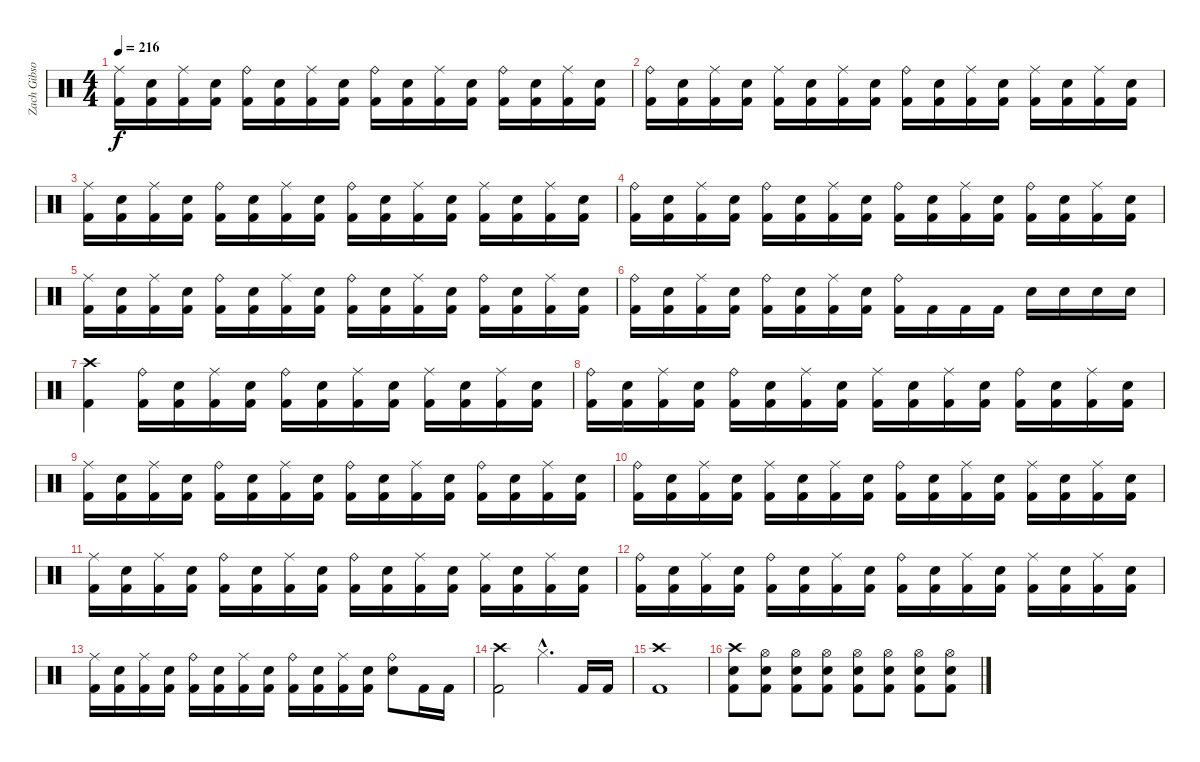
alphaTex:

\track ("Zach Gibson (Ex-Drums)" "Zach Gibso") {instrument percussion}
\staff {score}
\articulation defaults
\ts (4 4)
\tempo 216
\clef neutral
\ks c
("Ride (middle)" "Kick (hit) 2").16{dy f} ("Snare (hit) 2" "Kick (hit) 2").16 ("Ride (middle)" "Kick (hit) 2").16 ("Snare (hit) 2" "Kick (hit) 2").16 ("Ride (bell)" "Kick (hit) 2").16 ("Snare (hit) 2" "Kick (hit) 2").16 ("Ride (middle)" "Kick (hit) 2").16 ("Snare (hit) 2" "Kick (hit) 2").16 ("Ride (bell)" "Kick (hit) 2").16 ("Snare (hit) 2" "Kick (hit) 2").16 ("Ride (middle)" "Kick (hit) 2").16 ("Snare (hit) 2" "Kick (hit) 2").16 ("Ride (bell)" "Kick (hit) 2").16 ("Snare (hit) 2" "Kick (hit) 2").16 ("Ride (middle)" "Kick (hit) 2").16 ("Snare (hit) 2" "Kick (hit) 2").16 |
("Ride (bell)" "Kick (hit) 2").16 ("Snare (hit) 2" "Kick (hit) 2").16 ("Ride (middle)" "Kick (hit) 2").16 ("Snare (hit) 2" "Kick (hit) 2").16 ("Ride (middle)" "Kick (hit) 2").16 ("Snare (hit) 2" "Kick (hit) 2").16 ("Ride (middle)" "Kick (hit) 2").16 ("Snare (hit) 2" "Kick (hit) 2").16 ("Ride (bell)" "Kick (hit) 2").16 ("Snare (hit) 2" "Kick (hit) 2").16 ("Ride (middle)" "Kick (hit) 2").16 ("Snare (hit) 2" "Kick (hit) 2").16 ("Ride (middle)" "Kick (hit) 2").16 ("Snare (hit) 2" "Kick (hit) 2").16 ("Ride (middle)" "Kick (hit) 2").16 ("Snare (hit) 2" "Kick (hit) 2").16 |
("Ride (middle)" "Kick (hit) 2").16 ("Snare (hit) 2" "Kick (hit) 2").16 ("Ride (middle)" "Kick (hit) 2").16 ("Snare (hit) 2" "Kick (hit) 2").16 ("Ride (bell)" "Kick (hit) 2").16 ("Snare (hit) 2" "Kick (hit) 2").16 ("Ride (middle)" "Kick (hit) 2").16 ("Snare (hit) 2" "Kick (hit) 2").16 ("Ride (bell)" "Kick (hit) 2").16 ("Snare (hit) 2" "Kick (hit) 2").16 ("Ride (middle)" "Kick (hit) 2").16 ("Snare (hit) 2" "Kick (hit) 2").16 ("Ride (middle)" "Kick (hit) 2").16 ("Snare (hit) 2" "Kick (hit) 2").16 ("Ride (middle)" "Kick (hit) 2").16 ("Snare (hit) 2" "Kick (hit) 2").16 |
("Ride (bell)" "Kick (hit) 2").16 ("Snare (hit) 2" "Kick (hit) 2").16 ("Ride (middle)" "Kick (hit) 2").16 ("Snare (hit) 2" "Kick (hit) 2").16 ("Ride (bell)" "Kick (hit) 2").16 ("Snare (hit) 2" "Kick (hit) 2").16 ("Ride (middle)" "Kick (hit) 2").16 ("Snare (hit) 2" "Kick (hit) 2").16 ("Ride (bell)" "Kick (hit) 2").16 ("Snare (hit) 2" "Kick (hit) 2").16 ("Ride (middle)" "Kick (hit) 2").16 ("Snare (hit) 2" "Kick (hit) 2").16 ("Ride (bell)" "Kick (hit) 2").16 ("Snare (hit) 2" "Kick (hit) 2").16 ("Ride (middle)" "Kick (hit) 2").16 ("Snare (hit) 2" "Kick (hit) 2").16 |
("Ride (middle)" "Kick (hit) 2").16 ("Snare (hit) 2" "Kick (hit) 2").16 ("Ride (middle)" "Kick (hit) 2").16 ("Snare (hit) 2" "Kick (hit) 2").16 ("Ride (bell)" "Kick (hit) 2").16 ("Snare (hit) 2" "Kick (hit) 2").16 ("Ride (middle)" "Kick (hit) 2").16 ("Snare (hit) 2" "Kick (hit) 2").16 ("Ride (bell)" "Kick (hit) 2").16 ("Snare (hit) 2" "Kick (hit) 2").16 ("Ride (middle)" "Kick (hit) 2").16 ("Snare (hit) 2" "Kick (hit) 2").16 ("Ride (bell)" "Kick (hit) 2").16 ("Snare (hit) 2" "Kick (hit) 2").16 ("Ride (middle)" "Kick (hit) 2").16 ("Snare (hit) 2" "Kick (hit) 2").16 |
("Ride (bell)" "Kick (hit) 2").16 ("Snare (hit) 2" "Kick (hit) 2").16 ("Ride (middle)" "Kick (hit) 2").16 ("Snare (hit) 2" "Kick (hit) 2").16 ("Ride (bell)" "Kick (hit) 2").16 ("Snare (hit) 2" "Kick (hit) 2").16 ("Ride (middle)" "Kick (hit) 2").16 ("Snare (hit) 2" "Kick (hit) 2").16 ("Ride (bell)" "Kick (hit) 2").16 "Kick (hit) 2".16 "Kick (hit) 2".16 "Kick (hit) 2".16 "Snare (hit) 2".16 "Snare (hit) 2".16 "Snare (hit) 2".16 "Snare (hit) 2".16 |
("Crash high (hit)" "Kick (hit) 2").4 ("Ride (bell)" "Kick (hit) 2").16 ("Snare (hit) 2" "Kick (hit) 2").16 ("Ride (middle)" "Kick (hit) 2").16 ("Snare (hit) 2" "Kick (hit) 2").16 ("Ride (bell)" "Kick (hit) 2").16 ("Snare (hit) 2" "Kick (hit) 2").16 ("Ride (middle)" "Kick (hit) 2").16 ("Snare (hit) 2" "Kick (hit) 2").16 ("Ride (middle)" "Kick (hit) 2").16 ("Snare (hit) 2" "Kick (hit) 2").16 ("Ride (middle)" "Kick (hit) 2").16 ("Snare (hit) 2" "Kick (hit) 2").16 |
("Ride (bell)" "Kick (hit) 2").16 ("Snare (hit) 2" "Kick (hit) 2").16 ("Ride (middle)" "Kick (hit) 2").16 ("Snare (hit) 2" "Kick (hit) 2").16 ("Ride (bell)" "Kick (hit) 2").16 ("Snare (hit) 2" "Kick (hit) 2").16 ("Ride (middle)" "Kick (hit) 2").16 ("Snare (hit) 2" "Kick (hit) 2").16 ("Ride (middle)" "Kick (hit) 2").16 ("Snare (hit) 2" "Kick (hit) 2").16 ("Ride (middle)" "Kick (hit) 2").16 ("Snare (hit) 2" "Kick (hit) 2").16 ("Ride (bell)" "Kick (hit) 2").16 ("Snare (hit) 2" "Kick (hit) 2").16 ("Ride (middle)" "Kick (hit) 2").16 ("Snare (hit) 2" "Kick (hit) 2").16 |
("Ride (middle)" "Kick (hit) 2").16 ("Snare (hit) 2" "Kick (hit) 2").16 ("Ride (middle)" "Kick (hit) 2").16 ("Snare (hit) 2" "Kick (hit) 2").16 ("Ride (bell)" "Kick (hit) 2").16 ("Snare (hit) 2" "Kick (hit) 2").16 ("Ride (middle)" "Kick (hit) 2").16 ("Snare (hit) 2" "Kick (hit) 2").16 ("Ride (bell)" "Kick (hit) 2").16 ("Snare (hit) 2" "Kick (hit) 2").16 ("Ride (middle)" "Kick (hit) 2").16 ("Snare (hit) 2" "Kick (hit) 2").16 ("Ride (bell)" "Kick (hit) 2").16 ("Snare (hit) 2" "Kick (hit) 2").16 ("Ride (middle)" "Kick (hit) 2").16 ("Snare (hit) 2" "Kick (hit) 2").16 |
("Ride (bell)" "Kick (hit) 2").16 ("Snare (hit) 2" "Kick (hit) 2").16 ("Ride (middle)" "Kick (hit) 2").16 ("Snare (hit) 2" "Kick (hit) 2").16 ("Ride (middle)" "Kick (hit) 2").16 ("Snare (hit) 2" "Kick (hit) 2").16 ("Ride (middle)" "Kick (hit) 2").16 ("Snare (hit) 2" "Kick (hit) 2").16 ("Ride (bell)" "Kick (hit) 2").16 ("Snare (hit) 2" "Kick (hit) 2").16 ("Ride (middle)" "Kick (hit) 2").16 ("Snare (hit) 2" "Kick (hit) 2").16 ("Ride (middle)" "Kick (hit) 2").16 ("Snare (hit) 2" "Kick (hit) 2").16 ("Ride (middle)" "Kick (hit) 2").16 ("Snare (hit) 2" "Kick (hit) 2").16 |
("Ride (middle)" "Kick (hit) 2").16 ("Snare (hit) 2" "Kick (hit) 2").16 ("Ride (middle)" "Kick (hit) 2").16 ("Snare (hit) 2" "Kick (hit) 2").16 ("Ride (bell)" "Kick (hit) 2").16 ("Snare (hit) 2" "Kick (hit) 2").16 ("Ride (middle)" "Kick (hit) 2").16 ("Snare (hit) 2" "Kick (hit) 2").16 ("Ride (bell)" "Kick (hit) 2").16 ("Snare (hit) 2" "Kick (hit) 2").16 ("Ride (middle)" "Kick (hit) 2").16 ("Snare (hit) 2" "Kick (hit) 2").16 ("Ride (middle)" "Kick (hit) 2").16 ("Snare (hit) 2" "Kick (hit) 2").16 ("Ride (middle)" "Kick (hit) 2").16 ("Snare (hit) 2" "Kick (hit) 2").16 |
("Ride (bell)" "Kick (hit) 2").16 ("Snare (hit) 2" "Kick (hit) 2").16 ("Ride (middle)" "Kick (hit) 2").16 ("Snare (hit) 2" "Kick (hit) 2").16 ("Ride (bell)" "Kick (hit) 2").16 ("Snare (hit) 2" "Kick (hit) 2").16 ("Ride (middle)" "Kick (hit) 2").16 ("Snare (hit) 2" "Kick (hit) 2").16 ("Ride (bell)" "Kick (hit) 2").16 ("Snare (hit) 2" "Kick (hit) 2").16 ("Ride (middle)" "Kick (hit) 2").16 ("Snare (hit) 2" "Kick (hit) 2").16 ("Ride (middle)" "Kick (hit) 2").16 ("Snare (hit) 2" "Kick (hit) 2").16 ("Ride (middle)" "Kick (hit) 2").16 ("Snare (hit) 2" "Kick (hit) 2").16 |
("Ride (middle)" "Kick (hit) 2").16 ("Snare (hit) 2" "Kick (hit) 2").16 ("Ride (middle)" "Kick (hit) 2").16 ("Snare (hit) 2" "Kick (hit) 2").16 ("Ride (bell)" "Kick (hit) 2").16 ("Snare (hit) 2" "Kick (hit) 2").16 ("Ride (middle)" "Kick (hit) 2").16 ("Snare (hit) 2" "Kick (hit) 2").16 ("Ride (bell)" "Kick (hit) 2").16 ("Snare (hit) 2" "Kick (hit) 2").16 ("Ride (middle)" "Kick (hit) 2").16 ("Snare (hit) 2" "Kick (hit) 2").16 ("Ride (bell)" "Snare (hit) 2").8 "Kick (hit) 2".16 "Kick (hit) 2".16 |
("Crash high (hit)" "Kick (hit) 2").2 "Hi-Hat (closed)"{hac}.4{d} "Kick (hit) 2".16 "Kick (hit) 2".16 |
("Crash high (hit)" "Kick (hit) 2").1 |
("Crash high (hit)" "Snare (hit) 2" "Kick (hit) 2").8 ("Hi-Hat (open)" "Snare (hit) 2" "Kick (hit) 2").8 ("Hi-Hat (open)" "Snare (hit) 2" "Kick (hit) 2").8 ("Hi-Hat (open)" "Snare (hit) 2" "Kick (hit) 2").8 ("Hi-Hat (open)" "Snare (hit) 2" "Kick (hit) 2").8 ("Hi-Hat (open)" "Snare (hit) 2" "Kick (hit) 2").8 ("Hi-Hat (open)" "Snare (hit) 2" "Kick (hit) 2").8 ("Hi-Hat (open)" "Snare (hit) 2" "Kick (hit) 2").8
